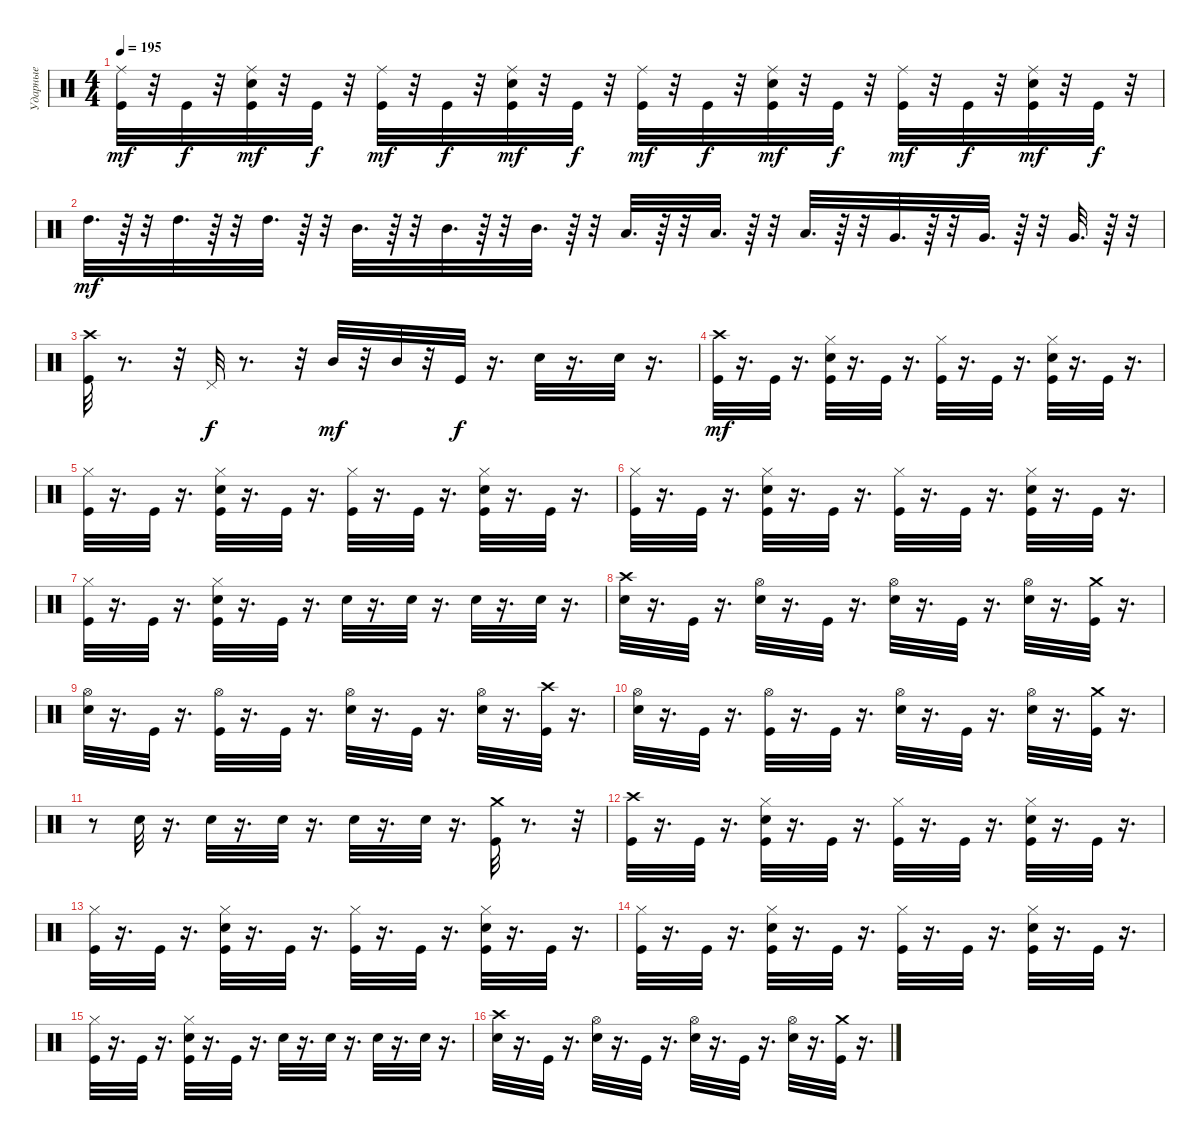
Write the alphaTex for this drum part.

\track ("Ударные" "Ударные") {instrument percussion}
\staff {score}
\articulation defaults
\ts (4 4)
\tempo 195
\clef neutral
\ks c
("Ride (middle)" "Kick (hit)").32{dy mf} r.32 "Kick (hit)".32{dy f} r.32 ("Electric Snare (hit)" "Ride (middle)" "Kick (hit)").32{dy mf} r.32 "Kick (hit)".32{dy f} r.32 ("Ride (middle)" "Kick (hit)").32{dy mf} r.32 "Kick (hit)".32{dy f} r.32 ("Ride (middle)" "Kick (hit)" "Electric Snare (hit)").32{dy mf} r.32 "Kick (hit)".32{dy f} r.32 ("Ride (middle)" "Kick (hit)").32{dy mf} r.32 "Kick (hit)".32{dy f} r.32 ("Ride (middle)" "Kick (hit)" "Electric Snare (hit)").32{dy mf} r.32 "Kick (hit)".32{dy f} r.32 ("Ride (middle)" "Kick (hit)").32{dy mf} r.32 "Kick (hit)".32{dy f} r.32 ("Electric Snare (hit)" "Ride (middle)" "Kick (hit)").32{dy mf} r.32 "Kick (hit)".32{dy f} r.32 |
"High Tom (hit)".32{d dy mf} r.64 r.32 "High Tom (hit)".32{d} r.64 r.32 "High Tom (hit)".32{d} r.64 r.32 "Mid Tom (hit)".32{d} r.64 r.32 "Mid Tom (hit)".32{d} r.64 r.32 "Mid Tom (hit)".32{d} r.64 r.32 "Low Tom (hit)".32{d} r.64 r.32 "Low Tom (hit)".32{d} r.64 r.32 "Low Tom (hit)".32{d} r.64 r.32 "Very Low Tom (hit)".32{d} r.64 r.32 "Very Low Tom (hit)".32{d} r.64 r.32 "Very Low Tom (hit)".32{d} r.64 r.32 |
("Crash high (hit)" "Kick (hit)").32 r.8{d} r.32 "Pedal Hi-Hat (hit)".32{dy f} r.8{d} r.32 "Mid Tom (hit)".32{dy mf} r.32 "Mid Tom (hit)".32 r.32 "Kick (hit)".32{dy f} r.16{d} "Electric Snare (hit)".32 r.16{d} "Electric Snare (hit)".32 r.16{d} |
("Crash high (hit)" "Kick (hit)").32{dy mf} r.16{d} "Kick (hit)".32 r.16{d} ("Electric Snare (hit)" "Kick (hit)" "Hi-Hat (closed)").32 r.16{d} "Kick (hit)".32 r.16{d} ("Kick (hit)" "Hi-Hat (closed)").32 r.16{d} "Kick (hit)".32 r.16{d} ("Electric Snare (hit)" "Kick (hit)" "Hi-Hat (closed)").32 r.16{d} "Kick (hit)".32 r.16{d} |
("Hi-Hat (closed)" "Kick (hit)").32 r.16{d} "Kick (hit)".32 r.16{d} ("Electric Snare (hit)" "Kick (hit)" "Hi-Hat (closed)").32 r.16{d} "Kick (hit)".32 r.16{d} ("Kick (hit)" "Hi-Hat (closed)").32 r.16{d} "Kick (hit)".32 r.16{d} ("Electric Snare (hit)" "Kick (hit)" "Hi-Hat (closed)").32 r.16{d} "Kick (hit)".32 r.16{d} |
("Hi-Hat (closed)" "Kick (hit)").32 r.16{d} "Kick (hit)".32 r.16{d} ("Electric Snare (hit)" "Kick (hit)" "Hi-Hat (closed)").32 r.16{d} "Kick (hit)".32 r.16{d} ("Kick (hit)" "Hi-Hat (closed)").32 r.16{d} "Kick (hit)".32 r.16{d} ("Electric Snare (hit)" "Kick (hit)" "Hi-Hat (closed)").32 r.16{d} "Kick (hit)".32 r.16{d} |
("Hi-Hat (closed)" "Kick (hit)").32 r.16{d} "Kick (hit)".32 r.16{d} ("Electric Snare (hit)" "Kick (hit)" "Hi-Hat (closed)").32 r.16{d} "Kick (hit)".32 r.16{d} "Electric Snare (hit)".32 r.16{d} "Electric Snare (hit)".32 r.16{d} "Electric Snare (hit)".32 r.16{d} "Electric Snare (hit)".32 r.16{d} |
("Crash high (hit)" "Electric Snare (hit)").32 r.16{d} "Kick (hit)".32 r.16{d} ("Electric Snare (hit)" "Hi-Hat (open)").32 r.16{d} "Kick (hit)".32 r.16{d} ("Electric Snare (hit)" "Hi-Hat (open)").32 r.16{d} "Kick (hit)".32 r.16{d} ("Hi-Hat (open)" "Electric Snare (hit)").32 r.16{d} ("Kick (hit)" "Crash medium (hit)").32 r.16{d} |
("Hi-Hat (open)" "Electric Snare (hit)").32 r.16{d} "Kick (hit)".32 r.16{d} ("Hi-Hat (open)" "Kick (hit)").32 r.16{d} "Kick (hit)".32 r.16{d} ("Hi-Hat (open)" "Electric Snare (hit)").32 r.16{d} "Kick (hit)".32 r.16{d} ("Electric Snare (hit)" "Hi-Hat (open)").32 r.16{d} ("Crash high (hit)" "Kick (hit)").32 r.16{d} |
("Electric Snare (hit)" "Hi-Hat (open)").32 r.16{d} "Kick (hit)".32 r.16{d} ("Kick (hit)" "Hi-Hat (open)").32 r.16{d} "Kick (hit)".32 r.16{d} ("Electric Snare (hit)" "Hi-Hat (open)").32 r.16{d} "Kick (hit)".32 r.16{d} ("Electric Snare (hit)" "Hi-Hat (open)").32 r.16{d} ("Kick (hit)" "Crash medium (hit)").32 r.16{d} |
r.8 "Electric Snare (hit)".32 r.16{d} "Electric Snare (hit)".32 r.16{d} "Electric Snare (hit)".32 r.16{d} "Electric Snare (hit)".32 r.16{d} "Electric Snare (hit)".32 r.16{d} ("Kick (hit)" "Crash medium (hit)").32 r.8{d} r.32 |
("Crash high (hit)" "Kick (hit)").32 r.16{d} "Kick (hit)".32 r.16{d} ("Electric Snare (hit)" "Kick (hit)" "Hi-Hat (closed)").32 r.16{d} "Kick (hit)".32 r.16{d} ("Kick (hit)" "Hi-Hat (closed)").32 r.16{d} "Kick (hit)".32 r.16{d} ("Electric Snare (hit)" "Kick (hit)" "Hi-Hat (closed)").32 r.16{d} "Kick (hit)".32 r.16{d} |
("Hi-Hat (closed)" "Kick (hit)").32 r.16{d} "Kick (hit)".32 r.16{d} ("Electric Snare (hit)" "Kick (hit)" "Hi-Hat (closed)").32 r.16{d} "Kick (hit)".32 r.16{d} ("Kick (hit)" "Hi-Hat (closed)").32 r.16{d} "Kick (hit)".32 r.16{d} ("Electric Snare (hit)" "Kick (hit)" "Hi-Hat (closed)").32 r.16{d} "Kick (hit)".32 r.16{d} |
("Hi-Hat (closed)" "Kick (hit)").32 r.16{d} "Kick (hit)".32 r.16{d} ("Electric Snare (hit)" "Kick (hit)" "Hi-Hat (closed)").32 r.16{d} "Kick (hit)".32 r.16{d} ("Kick (hit)" "Hi-Hat (closed)").32 r.16{d} "Kick (hit)".32 r.16{d} ("Electric Snare (hit)" "Kick (hit)" "Hi-Hat (closed)").32 r.16{d} "Kick (hit)".32 r.16{d} |
("Hi-Hat (closed)" "Kick (hit)").32 r.16{d} "Kick (hit)".32 r.16{d} ("Electric Snare (hit)" "Kick (hit)" "Hi-Hat (closed)").32 r.16{d} "Kick (hit)".32 r.16{d} "Electric Snare (hit)".32 r.16{d} "Electric Snare (hit)".32 r.16{d} "Electric Snare (hit)".32 r.16{d} "Electric Snare (hit)".32 r.16{d} |
("Crash high (hit)" "Electric Snare (hit)").32 r.16{d} "Kick (hit)".32 r.16{d} ("Electric Snare (hit)" "Hi-Hat (open)").32 r.16{d} "Kick (hit)".32 r.16{d} ("Electric Snare (hit)" "Hi-Hat (open)").32 r.16{d} "Kick (hit)".32 r.16{d} ("Hi-Hat (open)" "Electric Snare (hit)").32 r.16{d} ("Kick (hit)" "Crash medium (hit)").32 r.16{d}
